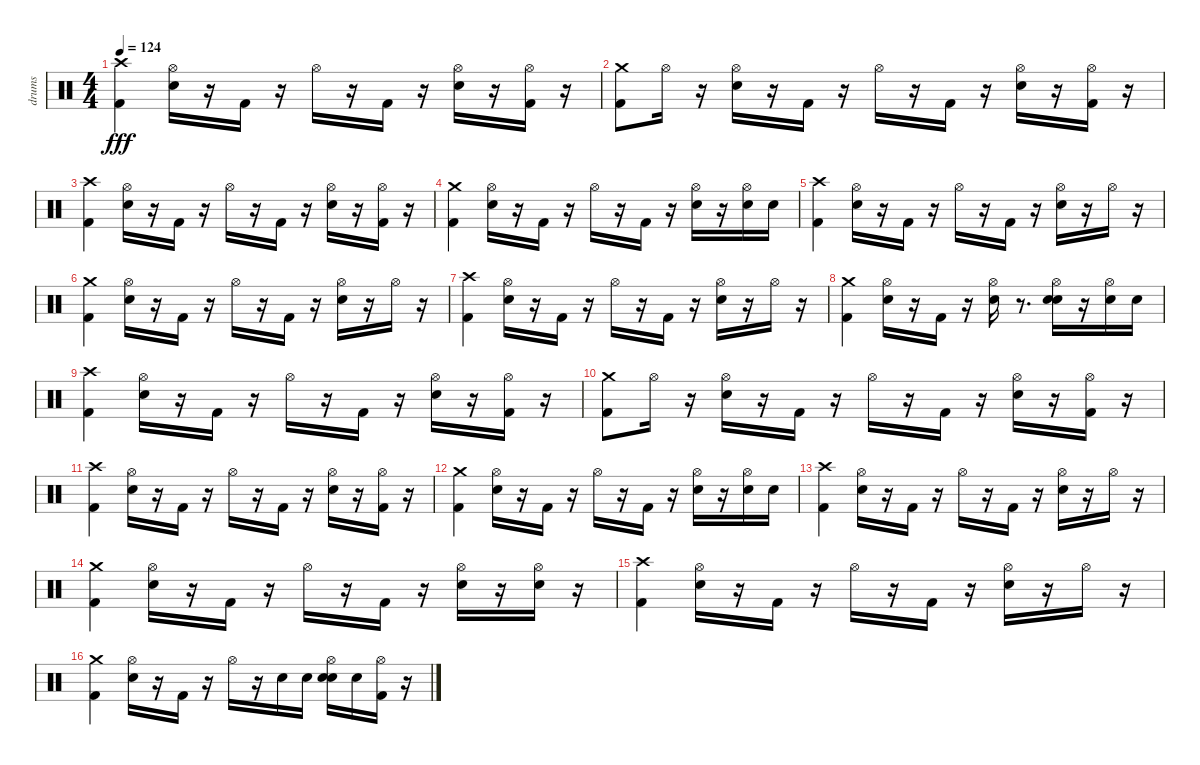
\track ("drums" "drums") {instrument percussion}
\staff {score}
\articulation defaults
\ts (4 4)
\tempo 124
\clef neutral
\ks c
("Kick (hit) 2" "Crash high (hit)").4{dy fff} ("Snare (hit) 2" "Hi-Hat (open)").16 r.16 "Kick (hit) 2".16 r.16 "Hi-Hat (open)".16 r.16 "Kick (hit) 2".16 r.16 ("Snare (hit) 2" "Hi-Hat (open)").16 r.16 ("Hi-Hat (open)" "Kick (hit) 2").16 r.16 |
("Kick (hit) 2" "Crash medium (hit)").8 "Hi-Hat (open)".16 r.16 ("Snare (hit) 2" "Hi-Hat (open)").16 r.16 "Kick (hit) 2".16 r.16 "Hi-Hat (open)".16 r.16 "Kick (hit) 2".16 r.16 ("Snare (hit) 2" "Hi-Hat (open)").16 r.16 ("Kick (hit) 2" "Hi-Hat (open)").16 r.16 |
("Kick (hit) 2" "Crash high (hit)").4 ("Snare (hit) 2" "Hi-Hat (open)").16 r.16 "Kick (hit) 2".16 r.16 "Hi-Hat (open)".16 r.16 "Kick (hit) 2".16 r.16 ("Snare (hit) 2" "Hi-Hat (open)").16 r.16 ("Hi-Hat (open)" "Kick (hit) 2").16 r.16 |
("Kick (hit) 2" "Crash medium (hit)").4 ("Snare (hit) 2" "Hi-Hat (open)").16 r.16 "Kick (hit) 2".16 r.16 "Hi-Hat (open)".16 r.16 "Kick (hit) 2".16 r.16 ("Snare (hit) 2" "Hi-Hat (open)").16 r.16 ("Hi-Hat (open)" "Snare (hit) 2").16 "Snare (hit) 2".16 |
("Kick (hit) 2" "Crash high (hit)").4 ("Snare (hit) 2" "Hi-Hat (open)").16 r.16 "Kick (hit) 2".16 r.16 "Hi-Hat (open)".16 r.16 "Kick (hit) 2".16 r.16 ("Snare (hit) 2" "Hi-Hat (open)").16 r.16 "Hi-Hat (open)".16 r.16 |
("Kick (hit) 2" "Crash medium (hit)").4 ("Snare (hit) 2" "Hi-Hat (open)").16 r.16 "Kick (hit) 2".16 r.16 "Hi-Hat (open)".16 r.16 "Kick (hit) 2".16 r.16 ("Snare (hit) 2" "Hi-Hat (open)").16 r.16 "Hi-Hat (open)".16 r.16 |
("Kick (hit) 2" "Crash high (hit)").4 ("Snare (hit) 2" "Hi-Hat (open)").16 r.16 "Kick (hit) 2".16 r.16 "Hi-Hat (open)".16 r.16 "Kick (hit) 2".16 r.16 ("Snare (hit) 2" "Hi-Hat (open)").16 r.16 "Hi-Hat (open)".16 r.16 |
("Kick (hit) 2" "Crash medium (hit)").4 ("Snare (hit) 2" "Hi-Hat (open)").16 r.16 "Kick (hit) 2".16 r.16 ("Hi-Hat (open)" "Snare (hit) 2").16 r.8{d} ("Snare (hit) 2" "Snare (hit) 2" "Hi-Hat (open)").16 r.16 ("Snare (hit) 2" "Hi-Hat (open)").16 "Snare (hit) 2".16 |
("Kick (hit) 2" "Crash high (hit)").4 ("Snare (hit) 2" "Hi-Hat (open)").16 r.16 "Kick (hit) 2".16 r.16 "Hi-Hat (open)".16 r.16 "Kick (hit) 2".16 r.16 ("Snare (hit) 2" "Hi-Hat (open)").16 r.16 ("Hi-Hat (open)" "Kick (hit) 2").16 r.16 |
("Kick (hit) 2" "Crash medium (hit)").8 "Hi-Hat (open)".16 r.16 ("Snare (hit) 2" "Hi-Hat (open)").16 r.16 "Kick (hit) 2".16 r.16 "Hi-Hat (open)".16 r.16 "Kick (hit) 2".16 r.16 ("Snare (hit) 2" "Hi-Hat (open)").16 r.16 ("Kick (hit) 2" "Hi-Hat (open)").16 r.16 |
("Kick (hit) 2" "Crash high (hit)").4 ("Snare (hit) 2" "Hi-Hat (open)").16 r.16 "Kick (hit) 2".16 r.16 "Hi-Hat (open)".16 r.16 "Kick (hit) 2".16 r.16 ("Snare (hit) 2" "Hi-Hat (open)").16 r.16 ("Hi-Hat (open)" "Kick (hit) 2").16 r.16 |
("Kick (hit) 2" "Crash medium (hit)").4 ("Snare (hit) 2" "Hi-Hat (open)").16 r.16 "Kick (hit) 2".16 r.16 "Hi-Hat (open)".16 r.16 "Kick (hit) 2".16 r.16 ("Snare (hit) 2" "Hi-Hat (open)").16 r.16 ("Hi-Hat (open)" "Snare (hit) 2").16 "Snare (hit) 2".16 |
("Kick (hit) 2" "Crash high (hit)").4 ("Snare (hit) 2" "Hi-Hat (open)").16 r.16 "Kick (hit) 2".16 r.16 "Hi-Hat (open)".16 r.16 "Kick (hit) 2".16 r.16 ("Snare (hit) 2" "Hi-Hat (open)").16 r.16 "Hi-Hat (open)".16 r.16 |
("Kick (hit) 2" "Crash medium (hit)").4 ("Snare (hit) 2" "Hi-Hat (open)").16 r.16 "Kick (hit) 2".16 r.16 "Hi-Hat (open)".16 r.16 "Kick (hit) 2".16 r.16 ("Snare (hit) 2" "Hi-Hat (open)").16 r.16 ("Hi-Hat (open)" "Snare (hit) 2").16 r.16 |
("Kick (hit) 2" "Crash high (hit)").4 ("Snare (hit) 2" "Hi-Hat (open)").16 r.16 "Kick (hit) 2".16 r.16 "Hi-Hat (open)".16 r.16 "Kick (hit) 2".16 r.16 ("Hi-Hat (open)" "Snare (hit) 2").16 r.16 "Hi-Hat (open)".16 r.16 |
("Kick (hit) 2" "Crash medium (hit)").4 ("Snare (hit) 2" "Hi-Hat (open)").16 r.16 "Kick (hit) 2".16 r.16 "Hi-Hat (open)".16 r.16 "Snare (hit) 2".16 "Snare (hit) 2".16 ("Snare (hit) 2" "Snare (hit) 2" "Hi-Hat (open)").16 "Snare (hit) 2".16 ("Hi-Hat (open)" "Kick (hit) 2").16 r.16
